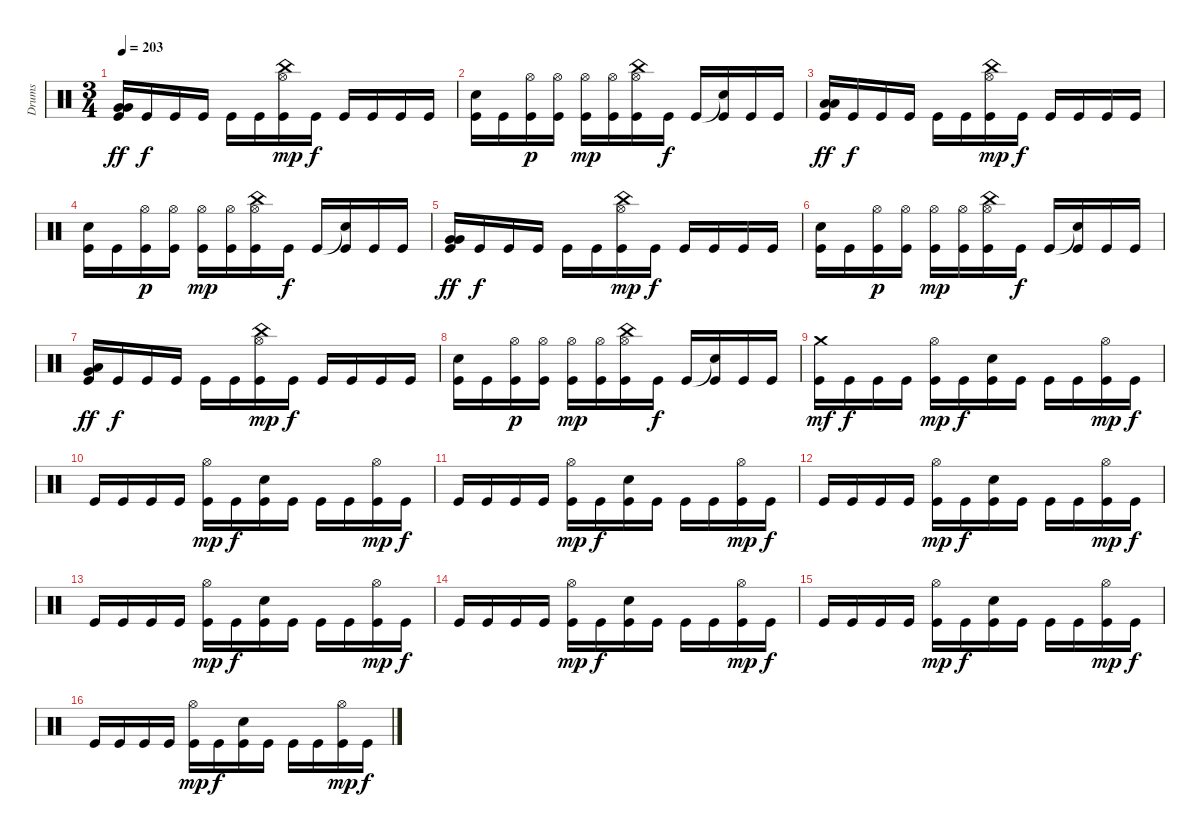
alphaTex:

\track ("Drums" "Drums") {instrument percussion}
\staff {score}
\articulation defaults
\ts (3 4)
\tempo 203
\clef neutral
\ks c
("Very Low Tom (hit)" "Very Low Tom (hit)" "Kick (hit)").16{dy ff} "Kick (hit)".16{dy f} "Kick (hit)".16 "Kick (hit)".16 "Kick (hit)".16 "Kick (hit)".16 ("China (hit)" "Hi-Hat (open)" "Kick (hit)").16{dy mp} "Kick (hit)".16{dy f} "Kick (hit)".16 "Kick (hit)".16 "Kick (hit)".16 "Kick (hit)".16 |
("Electric Snare (hit)" "Kick (hit)").16 "Kick (hit)".16 ("Hi-Hat (open)" "Kick (hit)").16{dy p} ("Hi-Hat (open)" "Kick (hit)").16 ("Hi-Hat (open)" "Kick (hit)").16{dy mp} ("Hi-Hat (open)" "Kick (hit)").16 ("China (hit)" "Hi-Hat (open)" "Kick (hit)").16 "Kick (hit)".16{dy f} "Kick (hit)".16 ("Snare (hit)"{t} "Kick (hit)").16 "Kick (hit)".16 "Kick (hit)".16 |
("Low Floor Tom (hit)" "Low Floor Tom (hit)" "Kick (hit)").16{dy ff} "Kick (hit)".16{dy f} "Kick (hit)".16 "Kick (hit)".16 "Kick (hit)".16 "Kick (hit)".16 ("China (hit)" "Hi-Hat (open)" "Kick (hit)").16{dy mp} "Kick (hit)".16{dy f} "Kick (hit)".16 "Kick (hit)".16 "Kick (hit)".16 "Kick (hit)".16 |
("Electric Snare (hit)" "Kick (hit)").16 "Kick (hit)".16 ("Hi-Hat (open)" "Kick (hit)").16{dy p} ("Hi-Hat (open)" "Kick (hit)").16 ("Hi-Hat (open)" "Kick (hit)").16{dy mp} ("Hi-Hat (open)" "Kick (hit)").16 ("China (hit)" "Hi-Hat (open)" "Kick (hit)").16 "Kick (hit)".16{dy f} "Kick (hit)".16 ("Snare (hit)"{t} "Kick (hit)").16 "Kick (hit)".16 "Kick (hit)".16 |
("Very Low Tom (hit)" "Very Low Tom (hit)" "Kick (hit)").16{dy ff} "Kick (hit)".16{dy f} "Kick (hit)".16 "Kick (hit)".16 "Kick (hit)".16 "Kick (hit)".16 ("China (hit)" "Hi-Hat (open)" "Kick (hit)").16{dy mp} "Kick (hit)".16{dy f} "Kick (hit)".16 "Kick (hit)".16 "Kick (hit)".16 "Kick (hit)".16 |
("Electric Snare (hit)" "Kick (hit)").16 "Kick (hit)".16 ("Hi-Hat (open)" "Kick (hit)").16{dy p} ("Hi-Hat (open)" "Kick (hit)").16 ("Hi-Hat (open)" "Kick (hit)").16{dy mp} ("Hi-Hat (open)" "Kick (hit)").16 ("China (hit)" "Hi-Hat (open)" "Kick (hit)").16 "Kick (hit)".16{dy f} "Kick (hit)".16 ("Snare (hit)"{t} "Kick (hit)").16 "Kick (hit)".16 "Kick (hit)".16 |
("Very Low Tom (hit)" "Low Floor Tom (hit)" "Kick (hit)").16{dy ff} "Kick (hit)".16{dy f} "Kick (hit)".16 "Kick (hit)".16 "Kick (hit)".16 "Kick (hit)".16 ("China (hit)" "Hi-Hat (open)" "Kick (hit)").16{dy mp} "Kick (hit)".16{dy f} "Kick (hit)".16 "Kick (hit)".16 "Kick (hit)".16 "Kick (hit)".16 |
("Electric Snare (hit)" "Kick (hit)").16 "Kick (hit)".16 ("Hi-Hat (open)" "Kick (hit)").16{dy p} ("Hi-Hat (open)" "Kick (hit)").16 ("Hi-Hat (open)" "Kick (hit)").16{dy mp} ("Hi-Hat (open)" "Kick (hit)").16 ("China (hit)" "Hi-Hat (open)" "Kick (hit)").16 "Kick (hit)".16{dy f} "Kick (hit)".16 ("Snare (hit)"{t} "Kick (hit)").16 "Kick (hit)".16 "Kick (hit)".16 |
("Crash medium (hit)" "Kick (hit)").16{dy mf} "Kick (hit)".16{dy f} "Kick (hit)".16 "Kick (hit)".16 ("Hi-Hat (open)" "Kick (hit)").16{dy mp} "Kick (hit)".16{dy f} ("Electric Snare (hit)" "Kick (hit)").16 "Kick (hit)".16 "Kick (hit)".16 "Kick (hit)".16 ("Hi-Hat (open)" "Kick (hit)").16{dy mp} "Kick (hit)".16{dy f} |
"Kick (hit)".16 "Kick (hit)".16 "Kick (hit)".16 "Kick (hit)".16 ("Hi-Hat (open)" "Kick (hit)").16{dy mp} "Kick (hit)".16{dy f} ("Electric Snare (hit)" "Kick (hit)").16 "Kick (hit)".16 "Kick (hit)".16 "Kick (hit)".16 ("Hi-Hat (open)" "Kick (hit)").16{dy mp} "Kick (hit)".16{dy f} |
"Kick (hit)".16 "Kick (hit)".16 "Kick (hit)".16 "Kick (hit)".16 ("Hi-Hat (open)" "Kick (hit)").16{dy mp} "Kick (hit)".16{dy f} ("Electric Snare (hit)" "Kick (hit)").16 "Kick (hit)".16 "Kick (hit)".16 "Kick (hit)".16 ("Hi-Hat (open)" "Kick (hit)").16{dy mp} "Kick (hit)".16{dy f} |
"Kick (hit)".16 "Kick (hit)".16 "Kick (hit)".16 "Kick (hit)".16 ("Hi-Hat (open)" "Kick (hit)").16{dy mp} "Kick (hit)".16{dy f} ("Electric Snare (hit)" "Kick (hit)").16 "Kick (hit)".16 "Kick (hit)".16 "Kick (hit)".16 ("Hi-Hat (open)" "Kick (hit)").16{dy mp} "Kick (hit)".16{dy f} |
"Kick (hit)".16 "Kick (hit)".16 "Kick (hit)".16 "Kick (hit)".16 ("Hi-Hat (open)" "Kick (hit)").16{dy mp} "Kick (hit)".16{dy f} ("Electric Snare (hit)" "Kick (hit)").16 "Kick (hit)".16 "Kick (hit)".16 "Kick (hit)".16 ("Hi-Hat (open)" "Kick (hit)").16{dy mp} "Kick (hit)".16{dy f} |
"Kick (hit)".16 "Kick (hit)".16 "Kick (hit)".16 "Kick (hit)".16 ("Hi-Hat (open)" "Kick (hit)").16{dy mp} "Kick (hit)".16{dy f} ("Electric Snare (hit)" "Kick (hit)").16 "Kick (hit)".16 "Kick (hit)".16 "Kick (hit)".16 ("Hi-Hat (open)" "Kick (hit)").16{dy mp} "Kick (hit)".16{dy f} |
"Kick (hit)".16 "Kick (hit)".16 "Kick (hit)".16 "Kick (hit)".16 ("Hi-Hat (open)" "Kick (hit)").16{dy mp} "Kick (hit)".16{dy f} ("Electric Snare (hit)" "Kick (hit)").16 "Kick (hit)".16 "Kick (hit)".16 "Kick (hit)".16 ("Hi-Hat (open)" "Kick (hit)").16{dy mp} "Kick (hit)".16{dy f} |
"Kick (hit)".16 "Kick (hit)".16 "Kick (hit)".16 "Kick (hit)".16 ("Hi-Hat (open)" "Kick (hit)").16{dy mp} "Kick (hit)".16{dy f} ("Electric Snare (hit)" "Kick (hit)").16 "Kick (hit)".16 "Kick (hit)".16 "Kick (hit)".16 ("Hi-Hat (open)" "Kick (hit)").16{dy mp} "Kick (hit)".16{dy f}
